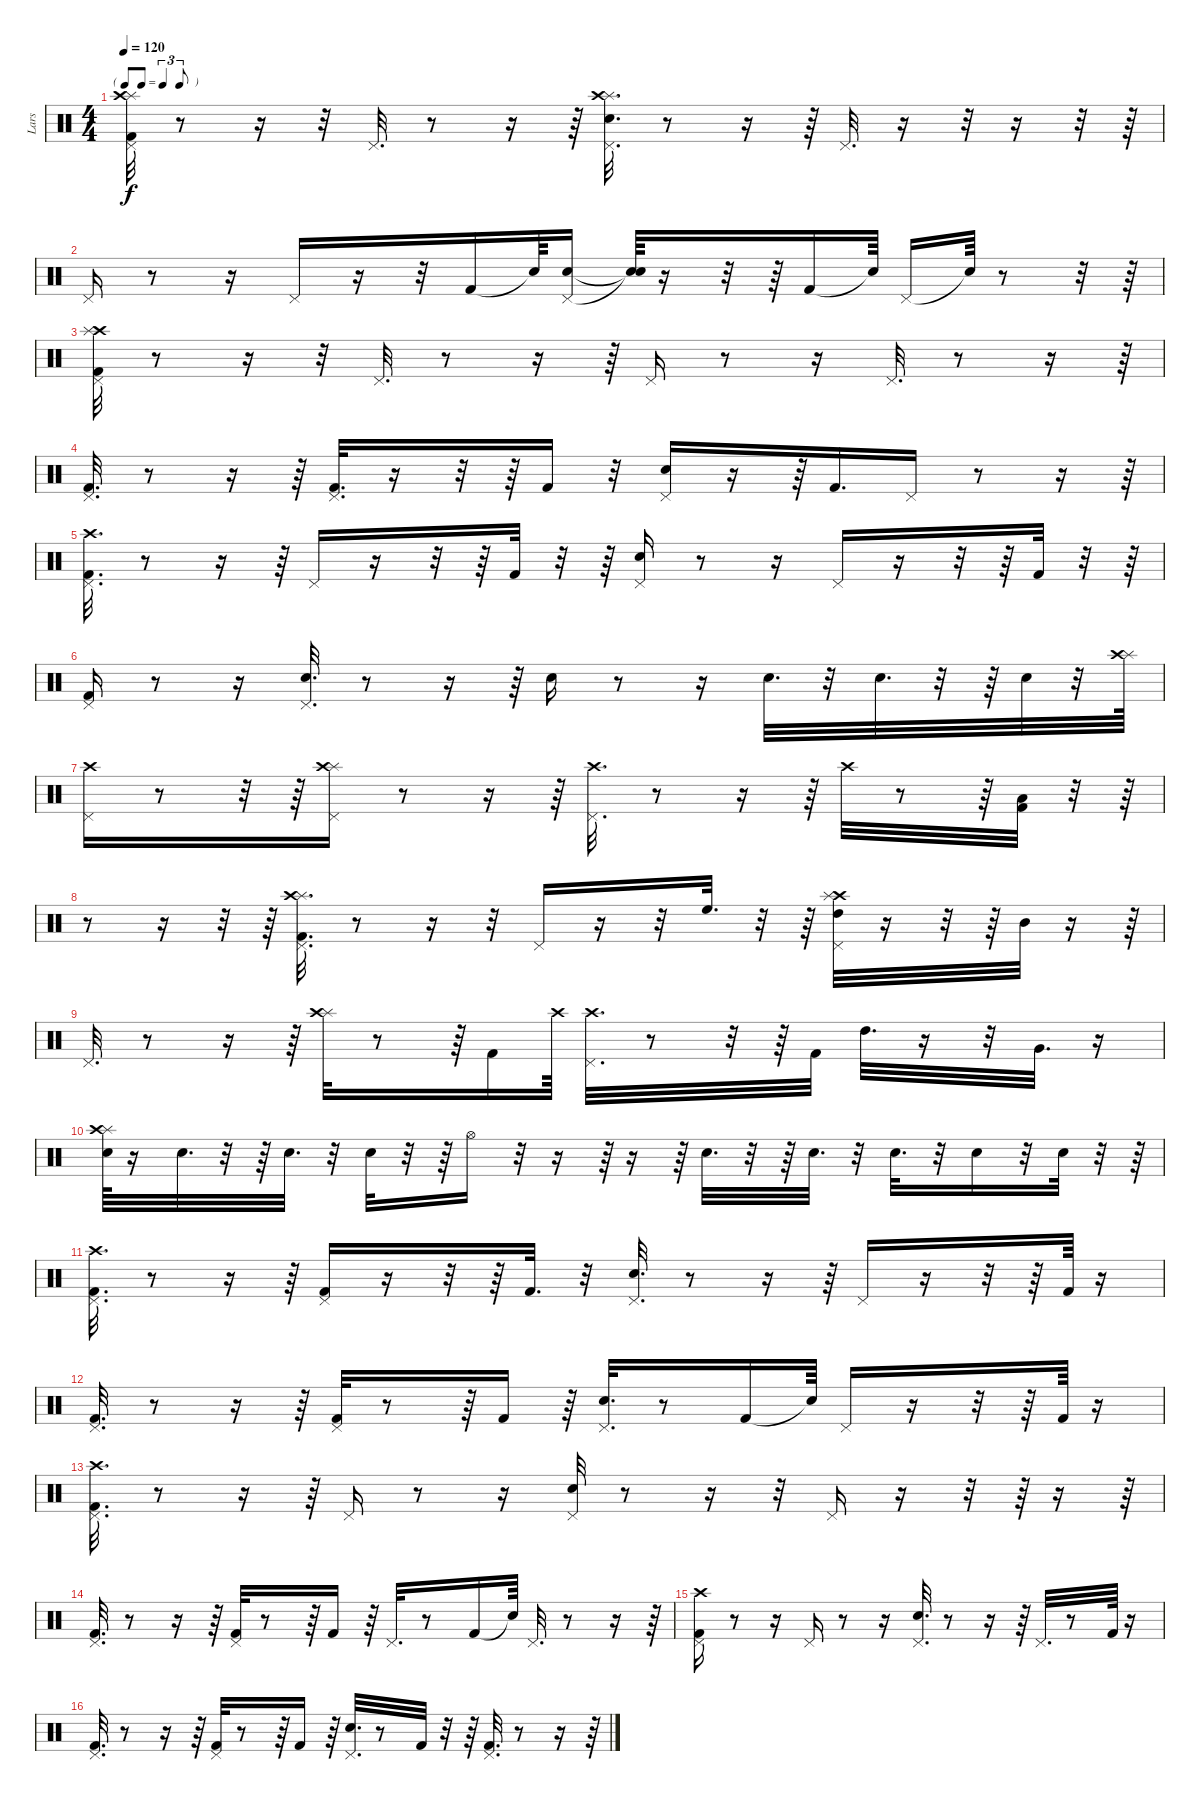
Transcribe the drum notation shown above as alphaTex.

\track ("Lars" "Lars") {instrument percussion}
\staff {score}
\articulation defaults
\ts (4 4)
\tf triplet8th
\tempo 120
\clef neutral
\ks c
("Splash (hit)" "Crash high (hit)" "Pedal Hi-Hat (hit)" "Kick (hit) 2").32{dy f} r.8 r.16 r.32 "Pedal Hi-Hat (hit)".32{d} r.8 r.16 r.64 ("Splash (hit)" "Crash high (hit)" "Electric Snare (hit)" "Pedal Hi-Hat (hit)").32{d} r.8 r.16 r.64 "Pedal Hi-Hat (hit)".32{d} r.16 r.32 r.16 r.32 r.64 |
"Pedal Hi-Hat (hit)".16 r.8 r.16 "Pedal Hi-Hat (hit)".16 r.16 r.32 "Kick (hit) 2".16 "Snare (hit)"{t}.64 ("Electric Snare (hit)" "Pedal Hi-Hat (hit)").16 ("Snare (hit)"{t} "Snare (hit)"{t}).64 r.16 r.32 r.64 "Kick (hit) 2".16 "Snare (hit)"{t}.64 "Pedal Hi-Hat (hit)".16 "Snare (hit)"{t}.64 r.8 r.32 r.64 |
("Crash high (hit)" "Splash (hit)" "Pedal Hi-Hat (hit)" "Kick (hit) 2").32 r.8 r.16 r.32 "Pedal Hi-Hat (hit)".32{d} r.8 r.16 r.64 "Pedal Hi-Hat (hit)".16 r.8 r.16 "Pedal Hi-Hat (hit)".32{d} r.8 r.16 r.64 |
("Kick (hit) 2" "Pedal Hi-Hat (hit)").32{d} r.8 r.16 r.64 ("Kick (hit) 2" "Pedal Hi-Hat (hit)").32{d} r.16 r.32 r.64 "Kick (hit) 2".16 r.32 ("Electric Snare (hit)" "Pedal Hi-Hat (hit)").16 r.16 r.64 "Kick (hit) 2".16{d} "Pedal Hi-Hat (hit)".16 r.8 r.16 r.64 |
("Pedal Hi-Hat (hit)" "Crash high (hit)" "Kick (hit) 2").32{d} r.8 r.16 r.64 "Pedal Hi-Hat (hit)".16 r.16 r.32 r.64 "Kick (hit) 2".32 r.32 r.64 ("Pedal Hi-Hat (hit)" "Electric Snare (hit)").16 r.8 r.16 "Pedal Hi-Hat (hit)".16 r.16 r.32 r.64 "Kick (hit) 2".32 r.32 r.64 |
("Kick (hit) 2" "Pedal Hi-Hat (hit)").16 r.8 r.16 ("Pedal Hi-Hat (hit)" "Electric Snare (hit)").32{d} r.8 r.16 r.64 "Electric Snare (hit)".16 r.8 r.16 "Electric Snare (hit)".32{d} r.32 "Electric Snare (hit)".32{d} r.32 r.64 "Electric Snare (hit)".32 r.32 ("Splash (hit)" "Crash high (hit)").64 |
("Pedal Hi-Hat (hit)" "Crash high (hit)").16 r.8 r.32 r.64 ("Splash (hit)" "Crash high (hit)" "Pedal Hi-Hat (hit)").16 r.8 r.16 r.64 ("Pedal Hi-Hat (hit)" "Crash high (hit)").32{d} r.8 r.16 r.64 "Crash high (hit)".32 r.8 r.64 ("Kick (hit) 2" "Low Tom (hit)").32 r.32 r.64 |
r.8 r.16 r.32 r.64 ("Splash (hit)" "Crash high (hit)" "Kick (hit) 2" "Pedal Hi-Hat (hit)").32{d} r.8 r.16 r.32 "Pedal Hi-Hat (hit)".16 r.16 r.32 "High Floor Tom (hit)".32{d} r.32 r.64 ("High Tom (hit)" "Crash high (hit)" "Pedal Hi-Hat (hit)" "Splash (hit)").32 r.16 r.32 r.64 "Mid Tom (hit)".32 r.16 r.64 |
"Pedal Hi-Hat (hit)".32{d} r.8 r.16 r.64 ("Splash (hit)" "Crash high (hit)").32 r.8 r.64 "Kick (hit) 2".16 "Crash high (hit)".64 ("Pedal Hi-Hat (hit)" "Crash high (hit)").32{d} r.8 r.32 r.64 "Kick (hit) 2".32 "High Tom (hit)".32{d} r.16 r.32 "Very Low Tom (hit)".32{d} r.16 |
("Splash (hit)" "Crash high (hit)" "Electric Snare (hit)").64 r.16 "Electric Snare (hit)".32{d} r.32 r.64 "Electric Snare (hit)".32{d} r.32 "Electric Snare (hit)".32 r.32 r.64 "Hi-Hat (open)".16 r.32 r.16 r.64 r.16 r.64 "Electric Snare (hit)".32{d} r.32 r.64 "Electric Snare (hit)".32{d} r.32 "Electric Snare (hit)".32{d} r.32 "Electric Snare (hit)".16 r.32 "Electric Snare (hit)".32 r.32 r.64 |
("Kick (hit) 2" "Pedal Hi-Hat (hit)" "Crash high (hit)").32{d} r.8 r.16 r.64 ("Kick (hit) 2" "Pedal Hi-Hat (hit)").16 r.16 r.32 r.64 "Kick (hit) 2".32{d} r.32 ("Pedal Hi-Hat (hit)" "Electric Snare (hit)").32{d} r.8 r.16 r.64 "Pedal Hi-Hat (hit)".16 r.16 r.32 r.64 "Kick (hit) 2".64 r.16 |
("Kick (hit) 2" "Pedal Hi-Hat (hit)").32{d} r.8 r.16 r.64 ("Kick (hit) 2" "Pedal Hi-Hat (hit)").32 r.8 r.64 "Kick (hit) 2".16 r.64 ("Electric Snare (hit)" "Pedal Hi-Hat (hit)").32{d} r.8 "Kick (hit) 2".16 "Snare (hit)"{t}.64 "Pedal Hi-Hat (hit)".16 r.16 r.32 r.64 "Kick (hit) 2".64 r.16 |
("Kick (hit) 2" "Crash high (hit)" "Pedal Hi-Hat (hit)").32{d} r.8 r.16 r.64 "Pedal Hi-Hat (hit)".16 r.8 r.16 ("Electric Snare (hit)" "Pedal Hi-Hat (hit)").32 r.8 r.16 r.32 "Pedal Hi-Hat (hit)".16 r.16 r.32 r.64 r.16 r.64 |
("Kick (hit) 2" "Pedal Hi-Hat (hit)").32{d} r.8 r.16 r.64 ("Kick (hit) 2" "Pedal Hi-Hat (hit)").32 r.8 r.64 "Kick (hit) 2".16 r.64 "Pedal Hi-Hat (hit)".32{d} r.8 "Kick (hit) 2".16 "Snare (hit)"{t}.64 "Pedal Hi-Hat (hit)".32{d} r.8 r.16 r.64 |
("Kick (hit) 2" "Crash high (hit)" "Pedal Hi-Hat (hit)").16 r.8 r.16 "Pedal Hi-Hat (hit)".16 r.8 r.16 ("Pedal Hi-Hat (hit)" "Electric Snare (hit)").32{d} r.8 r.16 r.64 "Pedal Hi-Hat (hit)".32{d} r.8 "Kick (hit) 2".64 r.16 |
("Kick (hit) 2" "Pedal Hi-Hat (hit)").32{d} r.8 r.16 r.64 ("Kick (hit) 2" "Pedal Hi-Hat (hit)").32 r.8 r.64 "Kick (hit) 2".16 r.64 ("Electric Snare (hit)" "Pedal Hi-Hat (hit)").32{d} r.8 "Kick (hit) 2".32 r.32 r.64 ("Pedal Hi-Hat (hit)" "Kick (hit) 2").32{d} r.8 r.16 r.64
